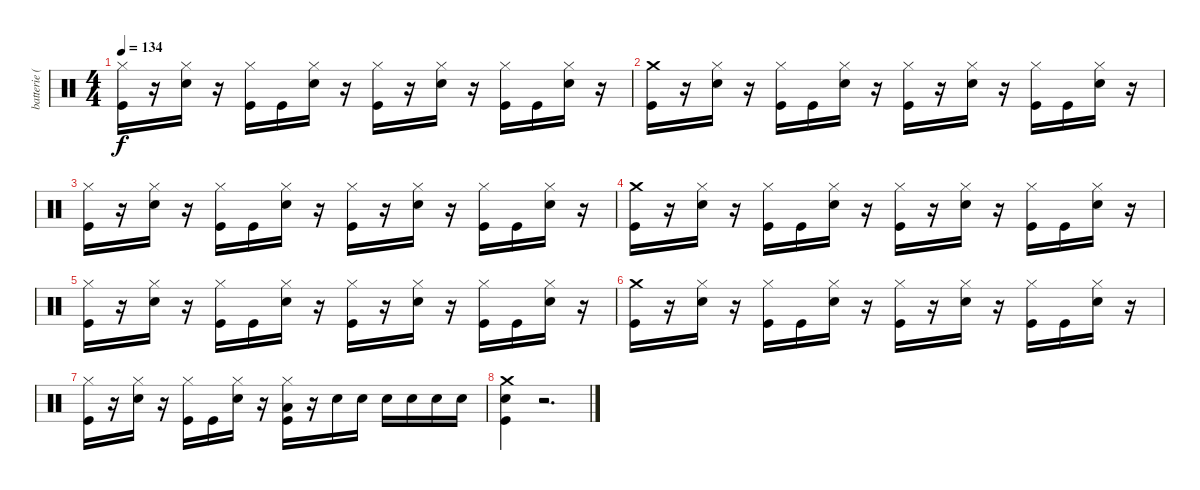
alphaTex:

\track ("batterie ( Mathieu )" "batterie (") {instrument percussion}
\staff {score}
\articulation defaults
\ts (4 4)
\tempo 134
\clef neutral
\ks c
("Hi-Hat (closed)" "Kick (hit)").16{dy f} r.16 ("Hi-Hat (closed)" "Snare (hit) 2").16 r.16 ("Hi-Hat (closed)" "Kick (hit)").16 "Kick (hit)".16 ("Hi-Hat (closed)" "Snare (hit) 2").16 r.16 ("Hi-Hat (closed)" "Kick (hit)").16 r.16 ("Hi-Hat (closed)" "Snare (hit) 2").16 r.16 ("Hi-Hat (closed)" "Kick (hit)").16 "Kick (hit)".16 ("Hi-Hat (closed)" "Snare (hit) 2").16 r.16 |
("Crash medium (hit)" "Kick (hit)").16 r.16 ("Hi-Hat (closed)" "Snare (hit) 2").16 r.16 ("Hi-Hat (closed)" "Kick (hit)").16 "Kick (hit)".16 ("Hi-Hat (closed)" "Snare (hit) 2").16 r.16 ("Hi-Hat (closed)" "Kick (hit)").16 r.16 ("Hi-Hat (closed)" "Snare (hit) 2").16 r.16 ("Hi-Hat (closed)" "Kick (hit)").16 "Kick (hit)".16 ("Hi-Hat (closed)" "Snare (hit) 2").16 r.16 |
("Hi-Hat (closed)" "Kick (hit)").16 r.16 ("Hi-Hat (closed)" "Snare (hit) 2").16 r.16 ("Hi-Hat (closed)" "Kick (hit)").16 "Kick (hit)".16 ("Hi-Hat (closed)" "Snare (hit) 2").16 r.16 ("Hi-Hat (closed)" "Kick (hit)").16 r.16 ("Hi-Hat (closed)" "Snare (hit) 2").16 r.16 ("Hi-Hat (closed)" "Kick (hit)").16 "Kick (hit)".16 ("Hi-Hat (closed)" "Snare (hit) 2").16 r.16 |
("Crash medium (hit)" "Kick (hit)").16 r.16 ("Hi-Hat (closed)" "Snare (hit) 2").16 r.16 ("Hi-Hat (closed)" "Kick (hit)").16 "Kick (hit)".16 ("Hi-Hat (closed)" "Snare (hit) 2").16 r.16 ("Hi-Hat (closed)" "Kick (hit)").16 r.16 ("Hi-Hat (closed)" "Snare (hit) 2").16 r.16 ("Hi-Hat (closed)" "Kick (hit)").16 "Kick (hit)".16 ("Hi-Hat (closed)" "Snare (hit) 2").16 r.16 |
("Hi-Hat (closed)" "Kick (hit)").16 r.16 ("Hi-Hat (closed)" "Snare (hit) 2").16 r.16 ("Hi-Hat (closed)" "Kick (hit)").16 "Kick (hit)".16 ("Hi-Hat (closed)" "Snare (hit) 2").16 r.16 ("Hi-Hat (closed)" "Kick (hit)").16 r.16 ("Hi-Hat (closed)" "Snare (hit) 2").16 r.16 ("Hi-Hat (closed)" "Kick (hit)").16 "Kick (hit)".16 ("Hi-Hat (closed)" "Snare (hit) 2").16 r.16 |
("Crash medium (hit)" "Kick (hit)").16 r.16 ("Hi-Hat (closed)" "Snare (hit) 2").16 r.16 ("Hi-Hat (closed)" "Kick (hit)").16 "Kick (hit)".16 ("Hi-Hat (closed)" "Snare (hit) 2").16 r.16 ("Hi-Hat (closed)" "Kick (hit)").16 r.16 ("Hi-Hat (closed)" "Snare (hit) 2").16 r.16 ("Hi-Hat (closed)" "Kick (hit)").16 "Kick (hit)".16 ("Hi-Hat (closed)" "Snare (hit) 2").16 r.16 |
("Hi-Hat (closed)" "Kick (hit)").16 r.16 ("Hi-Hat (closed)" "Snare (hit) 2").16 r.16 ("Hi-Hat (closed)" "Kick (hit)").16 "Kick (hit)".16 ("Hi-Hat (closed)" "Snare (hit) 2").16 r.16 ("Hi-Hat (closed)" "Low Floor Tom (hit)" "Kick (hit)").16 r.16 "Snare (hit) 2".16 "Snare (hit) 2".16 "Snare (hit) 2".16 "Snare (hit) 2".16 "Snare (hit) 2".16 "Snare (hit) 2".16 |
("Crash medium (hit)" "Snare (hit) 2" "Kick (hit)").4 r.2{d}
